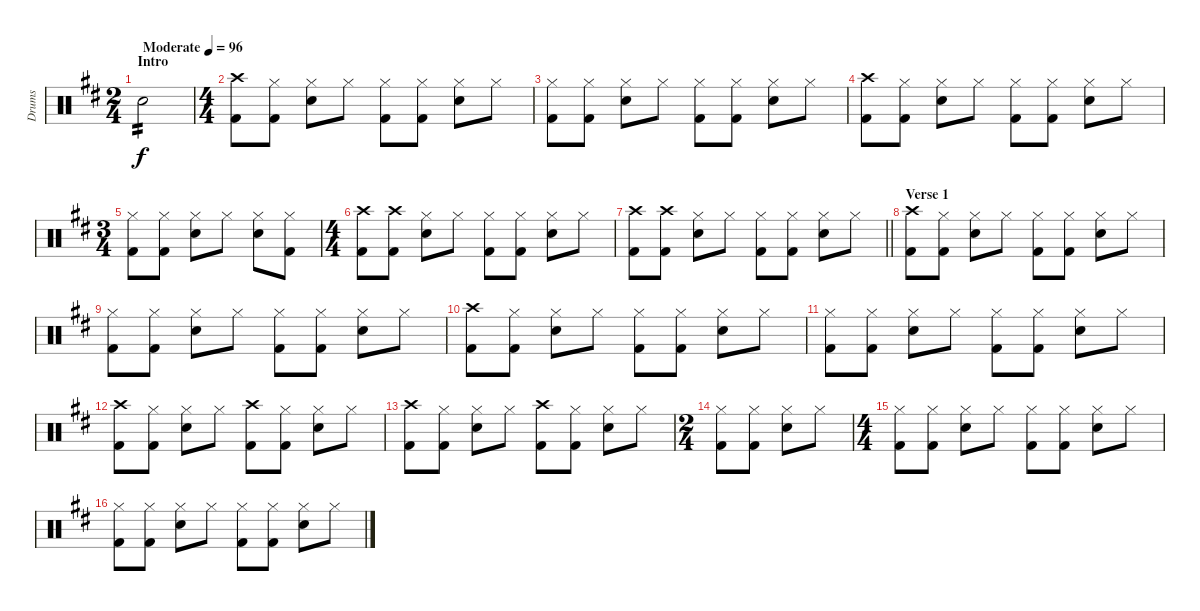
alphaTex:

\track ("Drums" "Drums") {instrument percussion}
\staff {score}
\articulation defaults
\ts (2 4)
\section ("" "Intro")
\tempo (96 "Moderate")
\clef neutral
\ks d "Electric Snare (hit)".2{tp 2 dy f}
|
\ts (4 4)
("Crash high (hit)" "Kick (hit) 2").8 ("Hi-Hat (closed)" "Kick (hit) 2").8 ("Hi-Hat (closed)" "Electric Snare (hit)").8 "Hi-Hat (closed)".8 ("Hi-Hat (closed)" "Kick (hit) 2").8 ("Hi-Hat (closed)" "Kick (hit) 2").8 ("Hi-Hat (closed)" "Electric Snare (hit)").8 "Hi-Hat (closed)".8 |
("Hi-Hat (closed)" "Kick (hit) 2").8 ("Hi-Hat (closed)" "Kick (hit) 2").8 ("Hi-Hat (closed)" "Electric Snare (hit)").8 "Hi-Hat (closed)".8 ("Hi-Hat (closed)" "Kick (hit) 2").8 ("Hi-Hat (closed)" "Kick (hit) 2").8 ("Hi-Hat (closed)" "Electric Snare (hit)").8 "Hi-Hat (closed)".8 |
("Crash high (hit)" "Kick (hit) 2").8 ("Hi-Hat (closed)" "Kick (hit) 2").8 ("Hi-Hat (closed)" "Electric Snare (hit)").8 "Hi-Hat (closed)".8 ("Hi-Hat (closed)" "Kick (hit) 2").8 ("Hi-Hat (closed)" "Kick (hit) 2").8 ("Hi-Hat (closed)" "Electric Snare (hit)").8 "Hi-Hat (closed)".8 |
\ts (3 4)
("Hi-Hat (closed)" "Kick (hit) 2").8 ("Hi-Hat (closed)" "Kick (hit) 2").8 ("Hi-Hat (closed)" "Electric Snare (hit)").8 "Hi-Hat (closed)".8 ("Hi-Hat (closed)" "Electric Snare (hit)").8 ("Hi-Hat (closed)" "Kick (hit) 2").8 |
\ts (4 4)
("Crash high (hit)" "Kick (hit) 2").8 ("Crash high (hit)" "Kick (hit) 2").8 ("Hi-Hat (closed)" "Electric Snare (hit)").8 "Hi-Hat (closed)".8 ("Hi-Hat (closed)" "Kick (hit) 2").8 ("Hi-Hat (closed)" "Kick (hit) 2").8 ("Hi-Hat (closed)" "Electric Snare (hit)").8 "Hi-Hat (closed)".8 |
\barLineRight lightlight
("Crash high (hit)" "Kick (hit) 2").8 ("Crash high (hit)" "Kick (hit) 2").8 ("Hi-Hat (closed)" "Electric Snare (hit)").8 "Hi-Hat (closed)".8 ("Hi-Hat (closed)" "Kick (hit) 2").8 ("Hi-Hat (closed)" "Kick (hit) 2").8 ("Hi-Hat (closed)" "Electric Snare (hit)").8 "Hi-Hat (closed)".8 |
\section ("" "Verse 1")
("Crash high (hit)" "Kick (hit) 2").8 ("Hi-Hat (closed)" "Kick (hit) 2").8 ("Hi-Hat (closed)" "Electric Snare (hit)").8 "Hi-Hat (closed)".8 ("Hi-Hat (closed)" "Kick (hit) 2").8 ("Hi-Hat (closed)" "Kick (hit) 2").8 ("Hi-Hat (closed)" "Electric Snare (hit)").8 "Hi-Hat (closed)".8 |
("Hi-Hat (closed)" "Kick (hit) 2").8 ("Hi-Hat (closed)" "Kick (hit) 2").8 ("Hi-Hat (closed)" "Electric Snare (hit)").8 "Hi-Hat (closed)".8 ("Hi-Hat (closed)" "Kick (hit) 2").8 ("Hi-Hat (closed)" "Kick (hit) 2").8 ("Hi-Hat (closed)" "Electric Snare (hit)").8 "Hi-Hat (closed)".8 |
("Crash high (hit)" "Kick (hit) 2").8 ("Hi-Hat (closed)" "Kick (hit) 2").8 ("Hi-Hat (closed)" "Electric Snare (hit)").8 "Hi-Hat (closed)".8 ("Hi-Hat (closed)" "Kick (hit) 2").8 ("Hi-Hat (closed)" "Kick (hit) 2").8 ("Hi-Hat (closed)" "Electric Snare (hit)").8 "Hi-Hat (closed)".8 |
("Hi-Hat (closed)" "Kick (hit) 2").8 ("Hi-Hat (closed)" "Kick (hit) 2").8 ("Hi-Hat (closed)" "Electric Snare (hit)").8 "Hi-Hat (closed)".8 ("Hi-Hat (closed)" "Kick (hit) 2").8 ("Hi-Hat (closed)" "Kick (hit) 2").8 ("Hi-Hat (closed)" "Electric Snare (hit)").8 "Hi-Hat (closed)".8 |
("Crash high (hit)" "Kick (hit) 2").8 ("Hi-Hat (closed)" "Kick (hit) 2").8 ("Hi-Hat (closed)" "Electric Snare (hit)").8 "Hi-Hat (closed)".8 ("Crash high (hit)" "Kick (hit) 2").8 ("Hi-Hat (closed)" "Kick (hit) 2").8 ("Hi-Hat (closed)" "Electric Snare (hit)").8 "Hi-Hat (closed)".8 |
("Crash high (hit)" "Kick (hit) 2").8 ("Hi-Hat (closed)" "Kick (hit) 2").8 ("Hi-Hat (closed)" "Electric Snare (hit)").8 "Hi-Hat (closed)".8 ("Crash high (hit)" "Kick (hit) 2").8 ("Hi-Hat (closed)" "Kick (hit) 2").8 ("Hi-Hat (closed)" "Electric Snare (hit)").8 "Hi-Hat (closed)".8 |
\ts (2 4)
("Hi-Hat (closed)" "Kick (hit) 2").8 ("Hi-Hat (closed)" "Kick (hit) 2").8 ("Hi-Hat (closed)" "Electric Snare (hit)").8 "Hi-Hat (closed)".8 |
\ts (4 4)
("Hi-Hat (closed)" "Kick (hit) 2").8 ("Hi-Hat (closed)" "Kick (hit) 2").8 ("Hi-Hat (closed)" "Electric Snare (hit)").8 "Hi-Hat (closed)".8 ("Hi-Hat (closed)" "Kick (hit) 2").8 ("Hi-Hat (closed)" "Kick (hit) 2").8 ("Hi-Hat (closed)" "Electric Snare (hit)").8 "Hi-Hat (closed)".8 |
("Hi-Hat (closed)" "Kick (hit) 2").8 ("Hi-Hat (closed)" "Kick (hit) 2").8 ("Hi-Hat (closed)" "Electric Snare (hit)").8 "Hi-Hat (closed)".8 ("Hi-Hat (closed)" "Kick (hit) 2").8 ("Hi-Hat (closed)" "Kick (hit) 2").8 ("Hi-Hat (closed)" "Electric Snare (hit)").8 "Hi-Hat (closed)".8
